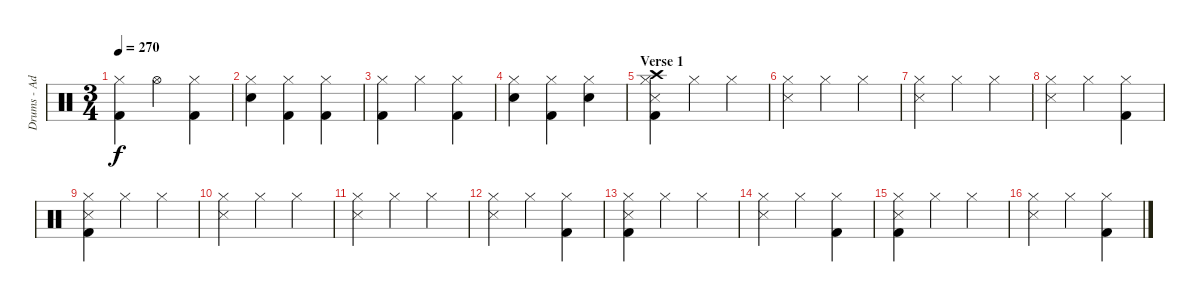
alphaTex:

\track ("Drums - Adam" "Drums - Ad") {instrument percussion}
\staff {score}
\articulation defaults
\ts (3 4)
\tempo 270
\clef neutral
\ks c
("Hi-Hat (closed)" "Kick (hit) 2").4{dy f} "Hi-Hat (open)".4 ("Hi-Hat (closed)" "Kick (hit) 2").4 |
("Hi-Hat (closed)" "Electric Snare (hit)").4 ("Hi-Hat (closed)" "Kick (hit) 2").4 ("Hi-Hat (closed)" "Kick (hit) 2").4 |
("Hi-Hat (closed)" "Kick (hit) 2").4 "Hi-Hat (closed)".4 ("Hi-Hat (closed)" "Kick (hit) 2").4 |
("Hi-Hat (closed)" "Electric Snare (hit)").4 ("Hi-Hat (closed)" "Kick (hit) 2").4 ("Hi-Hat (closed)" "Electric Snare (hit)").4 |
\section ("" "Verse 1")
("Hi-Hat (closed)" "Kick (hit) 2" "Snare (side stick) 3" "Crash high (hit)").4 "Hi-Hat (closed)".4 "Hi-Hat (closed)".4 |
("Hi-Hat (closed)" "Snare (side stick) 3").4 "Hi-Hat (closed)".4 "Hi-Hat (closed)".4 |
("Hi-Hat (closed)" "Snare (side stick) 3").4 "Hi-Hat (closed)".4 "Hi-Hat (closed)".4 |
("Hi-Hat (closed)" "Snare (side stick) 3").4 "Hi-Hat (closed)".4 ("Hi-Hat (closed)" "Kick (hit) 2").4 |
("Hi-Hat (closed)" "Kick (hit) 2" "Snare (side stick) 3").4 "Hi-Hat (closed)".4 "Hi-Hat (closed)".4 |
("Hi-Hat (closed)" "Snare (side stick) 3").4 "Hi-Hat (closed)".4 "Hi-Hat (closed)".4 |
("Hi-Hat (closed)" "Snare (side stick) 3").4 "Hi-Hat (closed)".4 "Hi-Hat (closed)".4 |
("Hi-Hat (closed)" "Snare (side stick) 3").4 "Hi-Hat (closed)".4 ("Hi-Hat (closed)" "Kick (hit) 2").4 |
("Hi-Hat (closed)" "Kick (hit) 2" "Snare (side stick) 3").4 "Hi-Hat (closed)".4 "Hi-Hat (closed)".4 |
("Hi-Hat (closed)" "Snare (side stick) 3").4 "Hi-Hat (closed)".4 ("Hi-Hat (closed)" "Kick (hit) 2").4 |
("Hi-Hat (closed)" "Kick (hit) 2" "Snare (side stick) 3").4 "Hi-Hat (closed)".4 "Hi-Hat (closed)".4 |
("Hi-Hat (closed)" "Snare (side stick) 3").4 "Hi-Hat (closed)".4 ("Hi-Hat (closed)" "Kick (hit) 2").4
